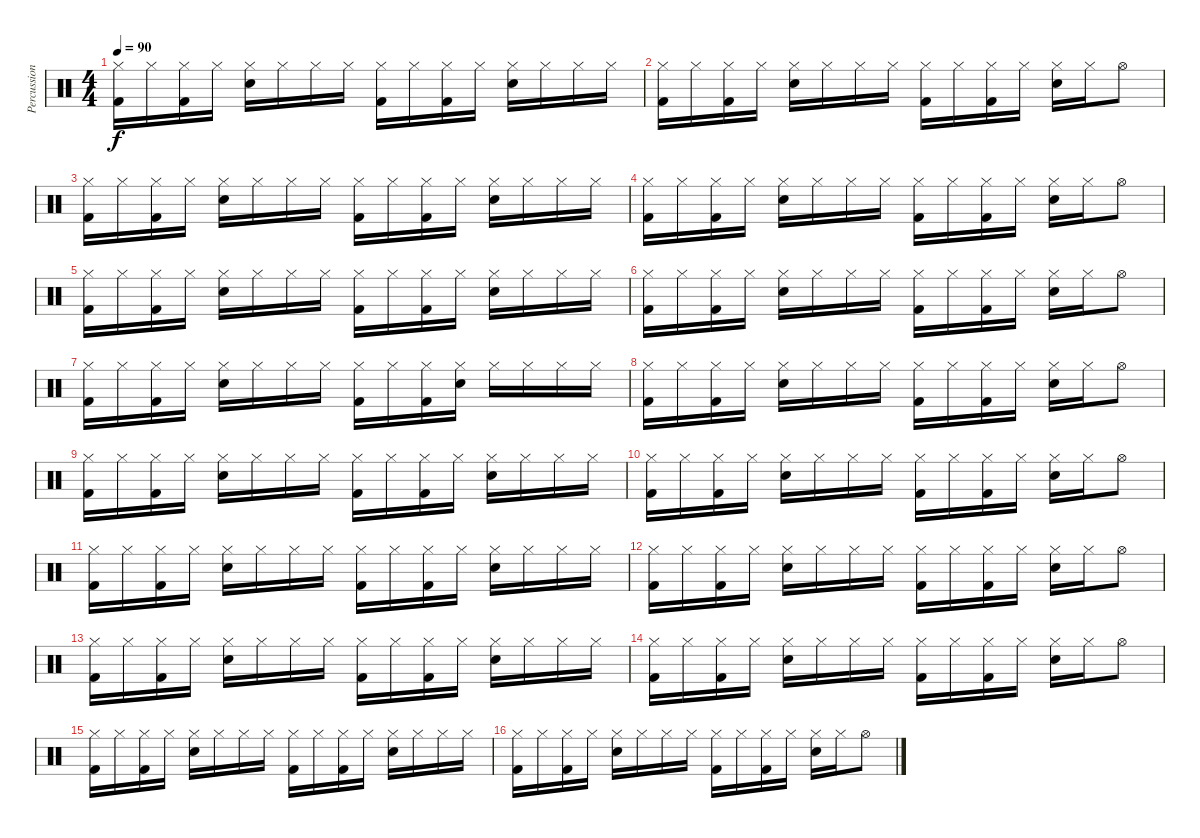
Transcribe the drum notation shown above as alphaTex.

\track ("Percussion" "Percussion") {instrument percussion}
\staff {score}
\articulation defaults
\ts (4 4)
\tempo 90
\clef neutral
\ks c
("Hi-Hat (closed)" "Kick (hit) 2").16{dy f} "Hi-Hat (closed)".16 ("Hi-Hat (closed)" "Kick (hit) 2").16 "Hi-Hat (closed)".16 ("Hi-Hat (closed)" "Electric Snare (hit)").16 "Hi-Hat (closed)".16 "Hi-Hat (closed)".16 "Hi-Hat (closed)".16 ("Hi-Hat (closed)" "Kick (hit) 2").16 "Hi-Hat (closed)".16 ("Hi-Hat (closed)" "Kick (hit) 2").16 "Hi-Hat (closed)".16 ("Hi-Hat (closed)" "Electric Snare (hit)").16 "Hi-Hat (closed)".16 "Hi-Hat (closed)".16 "Hi-Hat (closed)".16 |
("Hi-Hat (closed)" "Kick (hit) 2").16 "Hi-Hat (closed)".16 ("Hi-Hat (closed)" "Kick (hit) 2").16 "Hi-Hat (closed)".16 ("Hi-Hat (closed)" "Electric Snare (hit)").16 "Hi-Hat (closed)".16 "Hi-Hat (closed)".16 "Hi-Hat (closed)".16 ("Hi-Hat (closed)" "Kick (hit) 2").16 "Hi-Hat (closed)".16 ("Hi-Hat (closed)" "Kick (hit) 2").16 "Hi-Hat (closed)".16 ("Hi-Hat (closed)" "Electric Snare (hit)").16 "Hi-Hat (closed)".16 "Hi-Hat (open)".8 |
("Hi-Hat (closed)" "Kick (hit) 2").16 "Hi-Hat (closed)".16 ("Hi-Hat (closed)" "Kick (hit) 2").16 "Hi-Hat (closed)".16 ("Hi-Hat (closed)" "Electric Snare (hit)").16 "Hi-Hat (closed)".16 "Hi-Hat (closed)".16 "Hi-Hat (closed)".16 ("Hi-Hat (closed)" "Kick (hit) 2").16 "Hi-Hat (closed)".16 ("Hi-Hat (closed)" "Kick (hit) 2").16 "Hi-Hat (closed)".16 ("Hi-Hat (closed)" "Electric Snare (hit)").16 "Hi-Hat (closed)".16 "Hi-Hat (closed)".16 "Hi-Hat (closed)".16 |
("Hi-Hat (closed)" "Kick (hit) 2").16 "Hi-Hat (closed)".16 ("Hi-Hat (closed)" "Kick (hit) 2").16 "Hi-Hat (closed)".16 ("Hi-Hat (closed)" "Electric Snare (hit)").16 "Hi-Hat (closed)".16 "Hi-Hat (closed)".16 "Hi-Hat (closed)".16 ("Hi-Hat (closed)" "Kick (hit) 2").16 "Hi-Hat (closed)".16 ("Hi-Hat (closed)" "Kick (hit) 2").16 "Hi-Hat (closed)".16 ("Hi-Hat (closed)" "Electric Snare (hit)").16 "Hi-Hat (closed)".16 "Hi-Hat (open)".8 |
("Hi-Hat (closed)" "Kick (hit) 2").16 "Hi-Hat (closed)".16 ("Hi-Hat (closed)" "Kick (hit) 2").16 "Hi-Hat (closed)".16 ("Hi-Hat (closed)" "Electric Snare (hit)").16 "Hi-Hat (closed)".16 "Hi-Hat (closed)".16 "Hi-Hat (closed)".16 ("Hi-Hat (closed)" "Kick (hit) 2").16 "Hi-Hat (closed)".16 ("Hi-Hat (closed)" "Kick (hit) 2").16 "Hi-Hat (closed)".16 ("Hi-Hat (closed)" "Electric Snare (hit)").16 "Hi-Hat (closed)".16 "Hi-Hat (closed)".16 "Hi-Hat (closed)".16 |
("Hi-Hat (closed)" "Kick (hit) 2").16 "Hi-Hat (closed)".16 ("Hi-Hat (closed)" "Kick (hit) 2").16 "Hi-Hat (closed)".16 ("Hi-Hat (closed)" "Electric Snare (hit)").16 "Hi-Hat (closed)".16 "Hi-Hat (closed)".16 "Hi-Hat (closed)".16 ("Hi-Hat (closed)" "Kick (hit) 2").16 "Hi-Hat (closed)".16 ("Hi-Hat (closed)" "Kick (hit) 2").16 "Hi-Hat (closed)".16 ("Hi-Hat (closed)" "Electric Snare (hit)").16 "Hi-Hat (closed)".16 "Hi-Hat (open)".8 |
("Hi-Hat (closed)" "Kick (hit) 2").16 "Hi-Hat (closed)".16 ("Hi-Hat (closed)" "Kick (hit) 2").16 "Hi-Hat (closed)".16 ("Hi-Hat (closed)" "Electric Snare (hit)").16 "Hi-Hat (closed)".16 "Hi-Hat (closed)".16 "Hi-Hat (closed)".16 ("Hi-Hat (closed)" "Kick (hit) 2").16 "Hi-Hat (closed)".16 ("Hi-Hat (closed)" "Kick (hit) 2").16 ("Hi-Hat (closed)" "Electric Snare (hit)").16 "Hi-Hat (closed)".16 "Hi-Hat (closed)".16 "Hi-Hat (closed)".16 "Hi-Hat (closed)".16 |
("Hi-Hat (closed)" "Kick (hit) 2").16 "Hi-Hat (closed)".16 ("Hi-Hat (closed)" "Kick (hit) 2").16 "Hi-Hat (closed)".16 ("Hi-Hat (closed)" "Electric Snare (hit)").16 "Hi-Hat (closed)".16 "Hi-Hat (closed)".16 "Hi-Hat (closed)".16 ("Hi-Hat (closed)" "Kick (hit) 2").16 "Hi-Hat (closed)".16 ("Hi-Hat (closed)" "Kick (hit) 2").16 "Hi-Hat (closed)".16 ("Hi-Hat (closed)" "Electric Snare (hit)").16 "Hi-Hat (closed)".16 "Hi-Hat (open)".8 |
("Hi-Hat (closed)" "Kick (hit) 2").16 "Hi-Hat (closed)".16 ("Hi-Hat (closed)" "Kick (hit) 2").16 "Hi-Hat (closed)".16 ("Hi-Hat (closed)" "Electric Snare (hit)").16 "Hi-Hat (closed)".16 "Hi-Hat (closed)".16 "Hi-Hat (closed)".16 ("Hi-Hat (closed)" "Kick (hit) 2").16 "Hi-Hat (closed)".16 ("Hi-Hat (closed)" "Kick (hit) 2").16 "Hi-Hat (closed)".16 ("Hi-Hat (closed)" "Electric Snare (hit)").16 "Hi-Hat (closed)".16 "Hi-Hat (closed)".16 "Hi-Hat (closed)".16 |
("Hi-Hat (closed)" "Kick (hit) 2").16 "Hi-Hat (closed)".16 ("Hi-Hat (closed)" "Kick (hit) 2").16 "Hi-Hat (closed)".16 ("Hi-Hat (closed)" "Electric Snare (hit)").16 "Hi-Hat (closed)".16 "Hi-Hat (closed)".16 "Hi-Hat (closed)".16 ("Hi-Hat (closed)" "Kick (hit) 2").16 "Hi-Hat (closed)".16 ("Hi-Hat (closed)" "Kick (hit) 2").16 "Hi-Hat (closed)".16 ("Hi-Hat (closed)" "Electric Snare (hit)").16 "Hi-Hat (closed)".16 "Hi-Hat (open)".8 |
("Hi-Hat (closed)" "Kick (hit) 2").16 "Hi-Hat (closed)".16 ("Hi-Hat (closed)" "Kick (hit) 2").16 "Hi-Hat (closed)".16 ("Hi-Hat (closed)" "Electric Snare (hit)").16 "Hi-Hat (closed)".16 "Hi-Hat (closed)".16 "Hi-Hat (closed)".16 ("Hi-Hat (closed)" "Kick (hit) 2").16 "Hi-Hat (closed)".16 ("Hi-Hat (closed)" "Kick (hit) 2").16 "Hi-Hat (closed)".16 ("Hi-Hat (closed)" "Electric Snare (hit)").16 "Hi-Hat (closed)".16 "Hi-Hat (closed)".16 "Hi-Hat (closed)".16 |
("Hi-Hat (closed)" "Kick (hit) 2").16 "Hi-Hat (closed)".16 ("Hi-Hat (closed)" "Kick (hit) 2").16 "Hi-Hat (closed)".16 ("Hi-Hat (closed)" "Electric Snare (hit)").16 "Hi-Hat (closed)".16 "Hi-Hat (closed)".16 "Hi-Hat (closed)".16 ("Hi-Hat (closed)" "Kick (hit) 2").16 "Hi-Hat (closed)".16 ("Hi-Hat (closed)" "Kick (hit) 2").16 "Hi-Hat (closed)".16 ("Hi-Hat (closed)" "Electric Snare (hit)").16 "Hi-Hat (closed)".16 "Hi-Hat (open)".8 |
("Hi-Hat (closed)" "Kick (hit) 2").16 "Hi-Hat (closed)".16 ("Hi-Hat (closed)" "Kick (hit) 2").16 "Hi-Hat (closed)".16 ("Hi-Hat (closed)" "Electric Snare (hit)").16 "Hi-Hat (closed)".16 "Hi-Hat (closed)".16 "Hi-Hat (closed)".16 ("Hi-Hat (closed)" "Kick (hit) 2").16 "Hi-Hat (closed)".16 ("Hi-Hat (closed)" "Kick (hit) 2").16 "Hi-Hat (closed)".16 ("Hi-Hat (closed)" "Electric Snare (hit)").16 "Hi-Hat (closed)".16 "Hi-Hat (closed)".16 "Hi-Hat (closed)".16 |
("Hi-Hat (closed)" "Kick (hit) 2").16 "Hi-Hat (closed)".16 ("Hi-Hat (closed)" "Kick (hit) 2").16 "Hi-Hat (closed)".16 ("Hi-Hat (closed)" "Electric Snare (hit)").16 "Hi-Hat (closed)".16 "Hi-Hat (closed)".16 "Hi-Hat (closed)".16 ("Hi-Hat (closed)" "Kick (hit) 2").16 "Hi-Hat (closed)".16 ("Hi-Hat (closed)" "Kick (hit) 2").16 "Hi-Hat (closed)".16 ("Hi-Hat (closed)" "Electric Snare (hit)").16 "Hi-Hat (closed)".16 "Hi-Hat (open)".8 |
("Hi-Hat (closed)" "Kick (hit) 2").16 "Hi-Hat (closed)".16 ("Hi-Hat (closed)" "Kick (hit) 2").16 "Hi-Hat (closed)".16 ("Hi-Hat (closed)" "Electric Snare (hit)").16 "Hi-Hat (closed)".16 "Hi-Hat (closed)".16 "Hi-Hat (closed)".16 ("Hi-Hat (closed)" "Kick (hit) 2").16 "Hi-Hat (closed)".16 ("Hi-Hat (closed)" "Kick (hit) 2").16 "Hi-Hat (closed)".16 ("Hi-Hat (closed)" "Electric Snare (hit)").16 "Hi-Hat (closed)".16 "Hi-Hat (closed)".16 "Hi-Hat (closed)".16 |
("Hi-Hat (closed)" "Kick (hit) 2").16 "Hi-Hat (closed)".16 ("Hi-Hat (closed)" "Kick (hit) 2").16 "Hi-Hat (closed)".16 ("Hi-Hat (closed)" "Electric Snare (hit)").16 "Hi-Hat (closed)".16 "Hi-Hat (closed)".16 "Hi-Hat (closed)".16 ("Hi-Hat (closed)" "Kick (hit) 2").16 "Hi-Hat (closed)".16 ("Hi-Hat (closed)" "Kick (hit) 2").16 "Hi-Hat (closed)".16 ("Hi-Hat (closed)" "Electric Snare (hit)").16 "Hi-Hat (closed)".16 "Hi-Hat (open)".8
